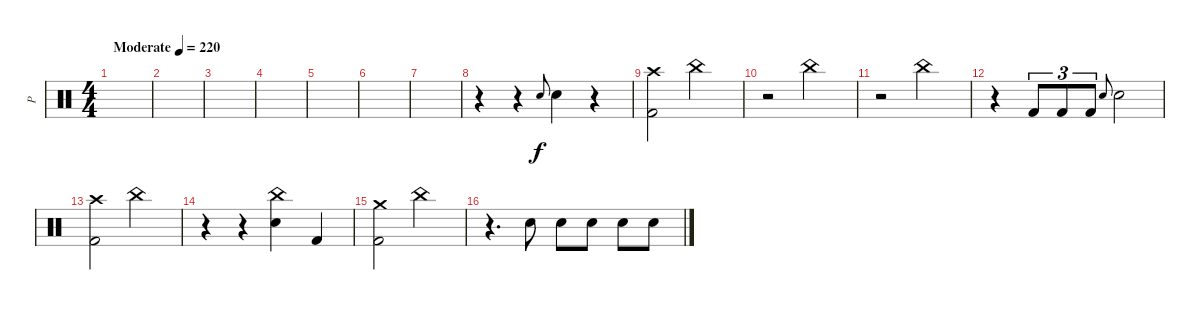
\track ("P" "P") {instrument percussion}
\staff {score}
\articulation defaults
\ts (4 4)
\tempo (220 "Moderate")
\clef neutral
\ks c
|
|
|
|
|
|
|
r.4 r.4 "Electric Snare (hit)".8{gr onbeat} "Electric Snare (hit)".4 r.4 |
("Crash high (hit)" "Kick (hit) 2").2 "China (hit)".2 |
r.2 "China (hit)".2 |
r.2 "China (hit)".2 |
r.4 "Kick (hit) 2".8{tu (3 2)} "Kick (hit) 2".8{tu (3 2)} "Kick (hit) 2".8{tu (3 2)} "Electric Snare (hit)".8{gr onbeat} "Electric Snare (hit)".2 |
("Crash high (hit)" "Kick (hit) 2").2 "China (hit)".2 |
r.4 r.4 ("China (hit)" "Electric Snare (hit)").4 "Kick (hit) 2".4 |
("Crash medium (hit)" "Kick (hit) 2").2 "China (hit)".2 |
r.4{d} "Electric Snare (hit)".8 "Electric Snare (hit)".8 "Electric Snare (hit)".8 "Electric Snare (hit)".8 "Electric Snare (hit)".8
